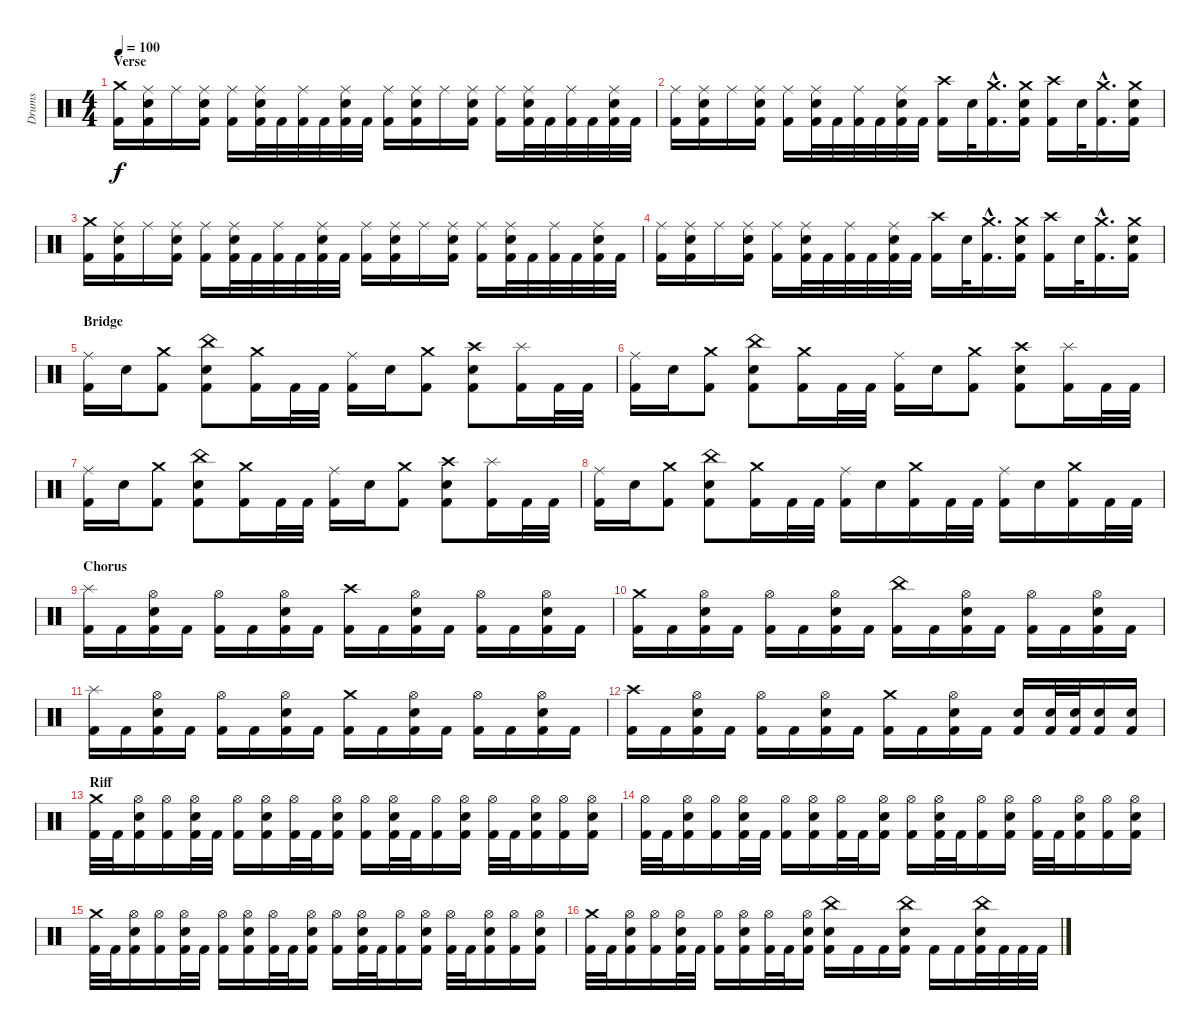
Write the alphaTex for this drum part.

\track ("Drums" "Drums") {instrument percussion}
\staff {score}
\articulation defaults
\ts (4 4)
\section ("" "Verse")
\tempo 100
\clef neutral
\ks c
("Crash medium (hit)" "Kick (hit) 2").16{dy f} ("Ride (middle)" "Electric Snare (hit)" "Kick (hit) 2").16 "Ride (middle)".16 ("Ride (middle)" "Electric Snare (hit)" "Kick (hit) 2").16 ("Ride (middle)" "Kick (hit) 2").16 ("Ride (middle)" "Electric Snare (hit)" "Kick (hit) 2").32 "Kick (hit) 2".32 ("Ride (middle)" "Kick (hit) 2").32 "Kick (hit) 2".32 ("Ride (middle)" "Electric Snare (hit)" "Kick (hit) 2").32 "Kick (hit) 2".32 ("Ride (middle)" "Kick (hit) 2").16 ("Ride (middle)" "Electric Snare (hit)" "Kick (hit) 2").16 "Ride (middle)".16 ("Ride (middle)" "Electric Snare (hit)" "Kick (hit) 2").16 ("Ride (middle)" "Kick (hit) 2").16 ("Ride (middle)" "Electric Snare (hit)" "Kick (hit) 2").32 "Kick (hit) 2".32 ("Ride (middle)" "Kick (hit) 2").32 "Kick (hit) 2".32 ("Ride (middle)" "Electric Snare (hit)" "Kick (hit) 2").32 "Kick (hit) 2".32 |
("Ride (middle)" "Kick (hit) 2").16 ("Ride (middle)" "Electric Snare (hit)" "Kick (hit) 2").16 "Ride (middle)".16 ("Ride (middle)" "Electric Snare (hit)" "Kick (hit) 2").16 ("Ride (middle)" "Kick (hit) 2").16 ("Ride (middle)" "Electric Snare (hit)" "Kick (hit) 2").32 "Kick (hit) 2".32 ("Ride (middle)" "Kick (hit) 2").32 "Kick (hit) 2".32 ("Ride (middle)" "Electric Snare (hit)" "Kick (hit) 2").32 "Kick (hit) 2".32 ("Crash high (hit)" "Kick (hit) 2").16 "Electric Snare (hit)".32 ("Crash medium (hit)"{hac} "Kick (hit) 2"{hac}).16{d} ("Crash medium (hit)" "Electric Snare (hit)" "Kick (hit) 2").16 ("Crash high (hit)" "Kick (hit) 2").16 "Electric Snare (hit)".32 ("Crash medium (hit)"{hac} "Kick (hit) 2"{hac}).16{d} ("Crash medium (hit)" "Electric Snare (hit)" "Kick (hit) 2").16 |
("Crash medium (hit)" "Kick (hit) 2").16 ("Ride (middle)" "Electric Snare (hit)" "Kick (hit) 2").16 "Ride (middle)".16 ("Ride (middle)" "Electric Snare (hit)" "Kick (hit) 2").16 ("Ride (middle)" "Kick (hit) 2").16 ("Ride (middle)" "Electric Snare (hit)" "Kick (hit) 2").32 "Kick (hit) 2".32 ("Ride (middle)" "Kick (hit) 2").32 "Kick (hit) 2".32 ("Ride (middle)" "Electric Snare (hit)" "Kick (hit) 2").32 "Kick (hit) 2".32 ("Ride (middle)" "Kick (hit) 2").16 ("Ride (middle)" "Electric Snare (hit)" "Kick (hit) 2").16 "Ride (middle)".16 ("Ride (middle)" "Electric Snare (hit)" "Kick (hit) 2").16 ("Ride (middle)" "Kick (hit) 2").16 ("Ride (middle)" "Electric Snare (hit)" "Kick (hit) 2").32 "Kick (hit) 2".32 ("Ride (middle)" "Kick (hit) 2").32 "Kick (hit) 2".32 ("Ride (middle)" "Electric Snare (hit)" "Kick (hit) 2").32 "Kick (hit) 2".32 |
("Ride (middle)" "Kick (hit) 2").16 ("Ride (middle)" "Electric Snare (hit)" "Kick (hit) 2").16 "Ride (middle)".16 ("Ride (middle)" "Electric Snare (hit)" "Kick (hit) 2").16 ("Ride (middle)" "Kick (hit) 2").16 ("Ride (middle)" "Electric Snare (hit)" "Kick (hit) 2").32 "Kick (hit) 2".32 ("Ride (middle)" "Kick (hit) 2").32 "Kick (hit) 2".32 ("Ride (middle)" "Electric Snare (hit)" "Kick (hit) 2").32 "Kick (hit) 2".32 ("Crash high (hit)" "Kick (hit) 2").16 "Electric Snare (hit)".32 ("Crash medium (hit)"{hac} "Kick (hit) 2"{hac}).16{d} ("Crash medium (hit)" "Electric Snare (hit)" "Kick (hit) 2").16 ("Crash high (hit)" "Kick (hit) 2").16 "Electric Snare (hit)".32 ("Crash medium (hit)"{hac} "Kick (hit) 2"{hac}).16{d} ("Crash medium (hit)" "Electric Snare (hit)" "Kick (hit) 2").16 |
\section ("" "Bridge")
("Ride (middle)" "Kick (hit) 2").16 "Electric Snare (hit)".16 ("Crash medium (hit)" "Kick (hit) 2").8 ("China (hit)" "Electric Snare (hit)" "Kick (hit) 2").8 ("Crash medium (hit)" "Kick (hit) 2").16 "Kick (hit) 2".32 "Kick (hit) 2".32 ("Ride (middle)" "Kick (hit) 2").16 "Electric Snare (hit)".16 ("Crash medium (hit)" "Kick (hit) 2").8 ("Crash high (hit)" "Electric Snare (hit)" "Kick (hit) 2").8 ("Splash (hit)" "Kick (hit) 2").16 "Kick (hit) 2".32 "Kick (hit) 2".32 |
("Ride (middle)" "Kick (hit) 2").16 "Electric Snare (hit)".16 ("Crash medium (hit)" "Kick (hit) 2").8 ("China (hit)" "Electric Snare (hit)" "Kick (hit) 2").8 ("Crash medium (hit)" "Kick (hit) 2").16 "Kick (hit) 2".32 "Kick (hit) 2".32 ("Ride (middle)" "Kick (hit) 2").16 "Electric Snare (hit)".16 ("Crash medium (hit)" "Kick (hit) 2").8 ("Crash high (hit)" "Electric Snare (hit)" "Kick (hit) 2").8 ("Splash (hit)" "Kick (hit) 2").16 "Kick (hit) 2".32 "Kick (hit) 2".32 |
("Ride (middle)" "Kick (hit) 2").16 "Electric Snare (hit)".16 ("Crash medium (hit)" "Kick (hit) 2").8 ("China (hit)" "Electric Snare (hit)" "Kick (hit) 2").8 ("Crash medium (hit)" "Kick (hit) 2").16 "Kick (hit) 2".32 "Kick (hit) 2".32 ("Ride (middle)" "Kick (hit) 2").16 "Electric Snare (hit)".16 ("Crash medium (hit)" "Kick (hit) 2").8 ("Crash high (hit)" "Electric Snare (hit)" "Kick (hit) 2").8 ("Splash (hit)" "Kick (hit) 2").16 "Kick (hit) 2".32 "Kick (hit) 2".32 |
("Ride (middle)" "Kick (hit) 2").16 "Electric Snare (hit)".16 ("Crash medium (hit)" "Kick (hit) 2").8 ("China (hit)" "Electric Snare (hit)" "Kick (hit) 2").8 ("Crash medium (hit)" "Kick (hit) 2").16 "Kick (hit) 2".32 "Kick (hit) 2".32 ("Ride (middle)" "Kick (hit) 2").16 "Electric Snare (hit)".16 ("Crash medium (hit)" "Kick (hit) 2").16 "Kick (hit) 2".32 "Kick (hit) 2".32 ("Ride (middle)" "Kick (hit) 2").16 "Electric Snare (hit)".16 ("Crash medium (hit)" "Kick (hit) 2").16 "Kick (hit) 2".32 "Kick (hit) 2".32 |
\section ("" "Chorus")
("Splash (hit)" "Kick (hit) 2").16 "Kick (hit) 2".16 ("Hi-Hat (open)" "Electric Snare (hit)" "Kick (hit) 2").16 "Kick (hit) 2".16 ("Hi-Hat (open)" "Kick (hit) 2").16 "Kick (hit) 2".16 ("Hi-Hat (open)" "Electric Snare (hit)" "Kick (hit) 2").16 "Kick (hit) 2".16 ("Crash high (hit)" "Kick (hit) 2").16 "Kick (hit) 2".16 ("Hi-Hat (open)" "Electric Snare (hit)" "Kick (hit) 2").16 "Kick (hit) 2".16 ("Hi-Hat (open)" "Kick (hit) 2").16 "Kick (hit) 2".16 ("Hi-Hat (open)" "Electric Snare (hit)" "Kick (hit) 2").16 "Kick (hit) 2".16 |
("Crash medium (hit)" "Kick (hit) 2").16 "Kick (hit) 2".16 ("Hi-Hat (open)" "Electric Snare (hit)" "Kick (hit) 2").16 "Kick (hit) 2".16 ("Hi-Hat (open)" "Kick (hit) 2").16 "Kick (hit) 2".16 ("Hi-Hat (open)" "Electric Snare (hit)" "Kick (hit) 2").16 "Kick (hit) 2".16 ("China (hit)" "Kick (hit) 2").16 "Kick (hit) 2".16 ("Hi-Hat (open)" "Electric Snare (hit)" "Kick (hit) 2").16 "Kick (hit) 2".16 ("Hi-Hat (open)" "Kick (hit) 2").16 "Kick (hit) 2".16 ("Hi-Hat (open)" "Electric Snare (hit)" "Kick (hit) 2").16 "Kick (hit) 2".16 |
("Splash (hit)" "Kick (hit) 2").16 "Kick (hit) 2".16 ("Hi-Hat (open)" "Electric Snare (hit)" "Kick (hit) 2").16 "Kick (hit) 2".16 ("Hi-Hat (open)" "Kick (hit) 2").16 "Kick (hit) 2".16 ("Hi-Hat (open)" "Electric Snare (hit)" "Kick (hit) 2").16 "Kick (hit) 2".16 ("Crash medium (hit)" "Kick (hit) 2").16 "Kick (hit) 2".16 ("Hi-Hat (open)" "Electric Snare (hit)" "Kick (hit) 2").16 "Kick (hit) 2".16 ("Hi-Hat (open)" "Kick (hit) 2").16 "Kick (hit) 2".16 ("Hi-Hat (open)" "Electric Snare (hit)" "Kick (hit) 2").16 "Kick (hit) 2".16 |
("Crash high (hit)" "Kick (hit) 2").16 "Kick (hit) 2".16 ("Hi-Hat (open)" "Electric Snare (hit)" "Kick (hit) 2").16 "Kick (hit) 2".16 ("Hi-Hat (open)" "Kick (hit) 2").16 "Kick (hit) 2".16 ("Hi-Hat (open)" "Electric Snare (hit)" "Kick (hit) 2").16 "Kick (hit) 2".16 ("Crash medium (hit)" "Kick (hit) 2").16 "Kick (hit) 2".16 ("Hi-Hat (open)" "Electric Snare (hit)" "Kick (hit) 2").16 "Kick (hit) 2".16 ("Electric Snare (hit)" "Kick (hit) 2").16 ("Electric Snare (hit)" "Kick (hit) 2").32 ("Electric Snare (hit)" "Kick (hit) 2").32 ("Electric Snare (hit)" "Kick (hit) 2").16 ("Electric Snare (hit)" "Kick (hit) 2").16 |
\section ("" "Riff")
("Crash medium (hit)" "Kick (hit) 2").32 "Kick (hit) 2".32 ("Hi-Hat (open)" "Electric Snare (hit)" "Kick (hit) 2").16 ("Hi-Hat (open)" "Kick (hit) 2").16 ("Hi-Hat (open)" "Electric Snare (hit)" "Kick (hit) 2").32 "Kick (hit) 2".32 ("Hi-Hat (open)" "Kick (hit) 2").16 ("Hi-Hat (open)" "Electric Snare (hit)" "Kick (hit) 2").16 ("Hi-Hat (open)" "Kick (hit) 2").32 "Kick (hit) 2".32 ("Hi-Hat (open)" "Electric Snare (hit)" "Kick (hit) 2").16 ("Hi-Hat (open)" "Kick (hit) 2").16 ("Hi-Hat (open)" "Electric Snare (hit)" "Kick (hit) 2").32 "Kick (hit) 2".32 ("Hi-Hat (open)" "Kick (hit) 2").16 ("Hi-Hat (open)" "Electric Snare (hit)" "Kick (hit) 2").16 ("Hi-Hat (open)" "Kick (hit) 2").32 "Kick (hit) 2".32 ("Hi-Hat (open)" "Electric Snare (hit)" "Kick (hit) 2").16 ("Hi-Hat (open)" "Kick (hit) 2").16 ("Hi-Hat (open)" "Electric Snare (hit)" "Kick (hit) 2").16 |
("Hi-Hat (open)" "Kick (hit) 2").32 "Kick (hit) 2".32 ("Hi-Hat (open)" "Electric Snare (hit)" "Kick (hit) 2").16 ("Hi-Hat (open)" "Kick (hit) 2").16 ("Hi-Hat (open)" "Electric Snare (hit)" "Kick (hit) 2").32 "Kick (hit) 2".32 ("Hi-Hat (open)" "Kick (hit) 2").16 ("Hi-Hat (open)" "Electric Snare (hit)" "Kick (hit) 2").16 ("Hi-Hat (open)" "Kick (hit) 2").32 "Kick (hit) 2".32 ("Hi-Hat (open)" "Electric Snare (hit)" "Kick (hit) 2").16 ("Hi-Hat (open)" "Kick (hit) 2").16 ("Hi-Hat (open)" "Electric Snare (hit)" "Kick (hit) 2").32 "Kick (hit) 2".32 ("Hi-Hat (open)" "Kick (hit) 2").16 ("Hi-Hat (open)" "Electric Snare (hit)" "Kick (hit) 2").16 ("Hi-Hat (open)" "Kick (hit) 2").32 "Kick (hit) 2".32 ("Hi-Hat (open)" "Electric Snare (hit)" "Kick (hit) 2").16 ("Hi-Hat (open)" "Kick (hit) 2").16 ("Hi-Hat (open)" "Electric Snare (hit)" "Kick (hit) 2").16 |
("Crash medium (hit)" "Kick (hit) 2").32 "Kick (hit) 2".32 ("Hi-Hat (open)" "Electric Snare (hit)" "Kick (hit) 2").16 ("Hi-Hat (open)" "Kick (hit) 2").16 ("Hi-Hat (open)" "Electric Snare (hit)" "Kick (hit) 2").32 "Kick (hit) 2".32 ("Hi-Hat (open)" "Kick (hit) 2").16 ("Hi-Hat (open)" "Electric Snare (hit)" "Kick (hit) 2").16 ("Hi-Hat (open)" "Kick (hit) 2").32 "Kick (hit) 2".32 ("Hi-Hat (open)" "Electric Snare (hit)" "Kick (hit) 2").16 ("Hi-Hat (open)" "Kick (hit) 2").16 ("Hi-Hat (open)" "Electric Snare (hit)" "Kick (hit) 2").32 "Kick (hit) 2".32 ("Hi-Hat (open)" "Kick (hit) 2").16 ("Hi-Hat (open)" "Electric Snare (hit)" "Kick (hit) 2").16 ("Hi-Hat (open)" "Kick (hit) 2").32 "Kick (hit) 2".32 ("Hi-Hat (open)" "Electric Snare (hit)" "Kick (hit) 2").16 ("Hi-Hat (open)" "Kick (hit) 2").16 ("Hi-Hat (open)" "Electric Snare (hit)" "Kick (hit) 2").16 |
("Crash medium (hit)" "Kick (hit) 2").32 "Kick (hit) 2".32 ("Hi-Hat (open)" "Electric Snare (hit)" "Kick (hit) 2").16 ("Hi-Hat (open)" "Kick (hit) 2").16 ("Hi-Hat (open)" "Electric Snare (hit)" "Kick (hit) 2").32 "Kick (hit) 2".32 ("Hi-Hat (open)" "Kick (hit) 2").16 ("Hi-Hat (open)" "Electric Snare (hit)" "Kick (hit) 2").16 ("Hi-Hat (open)" "Kick (hit) 2").32 "Kick (hit) 2".32 ("Hi-Hat (open)" "Electric Snare (hit)" "Kick (hit) 2").16 ("China (hit)" "Electric Snare (hit)" "Kick (hit) 2").16 "Kick (hit) 2".16 "Kick (hit) 2".16 ("China (hit)" "Electric Snare (hit)" "Kick (hit) 2").16 "Kick (hit) 2".16 "Kick (hit) 2".16 ("China (hit)" "Electric Snare (hit)" "Kick (hit) 2").32 "Kick (hit) 2".32 "Kick (hit) 2".32 "Kick (hit) 2".32
